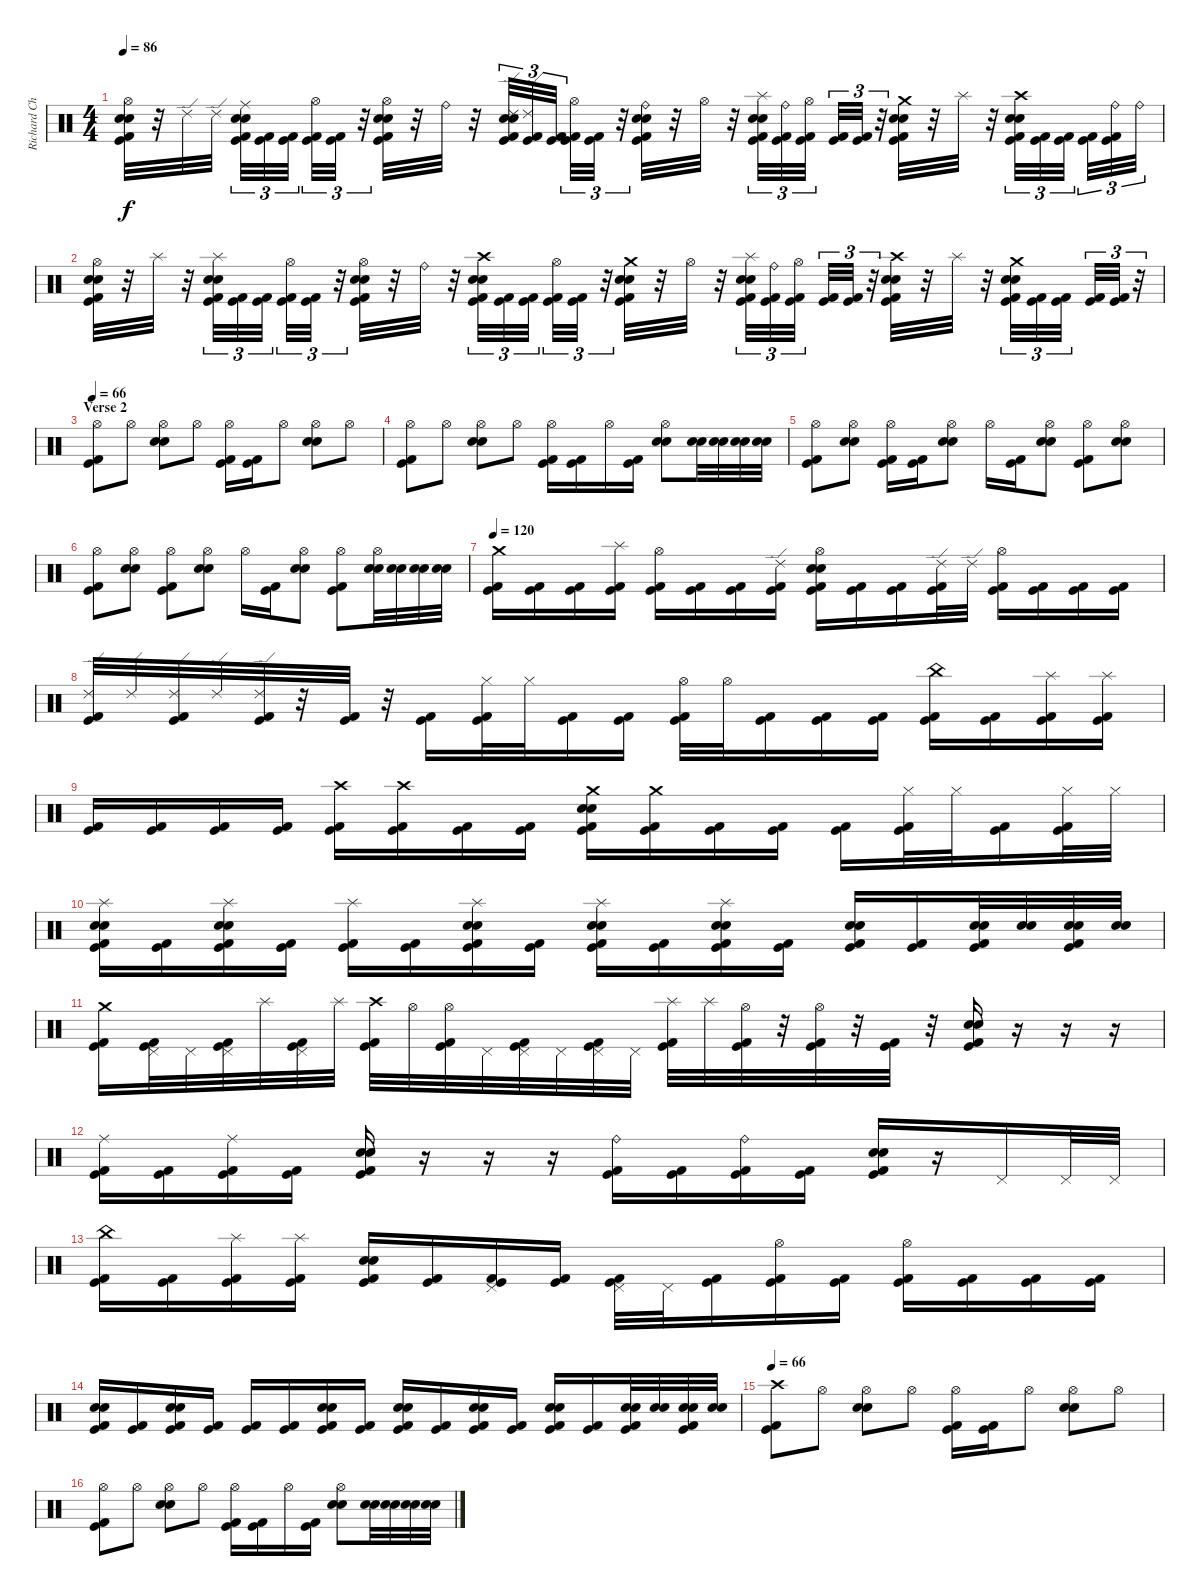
\track ("Richard Christy" "Richard Ch") {instrument percussion}
\staff {score}
\articulation defaults
\ts (4 4)
\tempo 86
\clef neutral
\ks c
("Hi-Hat (open)" "Electric Snare (hit)" "Snare (hit) 2" "Kick (hit) 2" "Kick (hit)").32{dy f} r.32 "Ride (edge) 2".32 "Ride (edge) 2".32 ("Ride (middle)" "Electric Snare (hit)" "Snare (hit) 2" "Kick (hit) 2" "Kick (hit)").32{tu (3 2)} ("Kick (hit) 2" "Kick (hit)").32{tu (3 2)} ("Kick (hit) 2" "Kick (hit)").32{tu (3 2)} ("Hi-Hat (open)" "Kick (hit) 2" "Kick (hit)").32{tu (3 2)} ("Kick (hit) 2" "Kick (hit)").32{tu (3 2)} r.32{tu (3 2)} ("Hi-Hat (open)" "Electric Snare (hit)" "Snare (hit) 2" "Kick (hit) 2" "Kick (hit)").32 r.32 "Ride (bell)".32 r.32 ("Ride (edge) 2" "Electric Snare (hit)" "Snare (hit) 2" "Kick (hit) 2" "Kick (hit)").32{tu (3 2)} ("Ride (edge) 2" "Kick (hit) 2" "Kick (hit)").32{tu (3 2)} ("Kick (hit) 2" "Kick (hit)").32{tu (3 2)} ("Hi-Hat (open)" "Kick (hit) 2" "Kick (hit)").32{tu (3 2)} ("Kick (hit) 2" "Kick (hit)").32{tu (3 2)} r.32{tu (3 2)} ("Ride (bell)" "Electric Snare (hit)" "Snare (hit) 2" "Kick (hit) 2" "Kick (hit)").32 r.32 "Hi-Hat (open)".32 r.32 ("Splash (hit)" "Electric Snare (hit)" "Snare (hit) 2" "Kick (hit) 2" "Kick (hit)").32{tu (3 2)} ("Ride (bell)" "Kick (hit) 2" "Kick (hit)").32{tu (3 2)} ("Hi-Hat (open)" "Kick (hit) 2" "Kick (hit)").32{tu (3 2)} ("Kick (hit) 2" "Kick (hit)").32{tu (3 2)} ("Kick (hit) 2" "Kick (hit)").32{tu (3 2)} r.32{tu (3 2)} ("Crash medium (hit)" "Electric Snare (hit)" "Snare (hit) 2" "Kick (hit) 2" "Kick (hit)").32 r.32 "Splash (hit)".32 r.32 ("Crash high (hit)" "Electric Snare (hit)" "Snare (hit) 2" "Kick (hit) 2" "Kick (hit)").32{tu (3 2)} ("Kick (hit) 2" "Kick (hit)").32{tu (3 2)} ("Kick (hit) 2" "Kick (hit)").32{tu (3 2)} ("Kick (hit) 2" "Kick (hit)").32{tu (3 2)} ("Ride (bell)" "Kick (hit) 2" "Kick (hit)").32{tu (3 2)} "Ride (bell)".32{tu (3 2)} |
("Hi-Hat (open)" "Electric Snare (hit)" "Snare (hit) 2" "Kick (hit) 2" "Kick (hit)").32 r.32 "Splash (hit)".32 r.32 ("Splash (hit)" "Electric Snare (hit)" "Snare (hit) 2" "Kick (hit) 2" "Kick (hit)").32{tu (3 2)} ("Kick (hit) 2" "Kick (hit)").32{tu (3 2)} ("Kick (hit) 2" "Kick (hit)").32{tu (3 2)} ("Hi-Hat (open)" "Kick (hit) 2" "Kick (hit)").32{tu (3 2)} ("Kick (hit) 2" "Kick (hit)").32{tu (3 2)} r.32{tu (3 2)} ("Hi-Hat (open)" "Electric Snare (hit)" "Snare (hit) 2" "Kick (hit) 2" "Kick (hit)").32 r.32 "Ride (bell)".32 r.32 ("Crash high (hit)" "Electric Snare (hit)" "Snare (hit) 2" "Kick (hit) 2" "Kick (hit)").32{tu (3 2)} ("Kick (hit) 2" "Kick (hit)").32{tu (3 2)} ("Kick (hit) 2" "Kick (hit)").32{tu (3 2)} ("Hi-Hat (open)" "Kick (hit) 2" "Kick (hit)").32{tu (3 2)} ("Kick (hit) 2" "Kick (hit)").32{tu (3 2)} r.32{tu (3 2)} ("Crash medium (hit)" "Electric Snare (hit)" "Snare (hit) 2" "Kick (hit) 2" "Kick (hit)").32 r.32 "Hi-Hat (open)".32 r.32 ("Splash (hit)" "Electric Snare (hit)" "Snare (hit) 2" "Kick (hit) 2" "Kick (hit)").32{tu (3 2)} ("Ride (bell)" "Kick (hit) 2" "Kick (hit)").32{tu (3 2)} ("Hi-Hat (open)" "Kick (hit) 2" "Kick (hit)").32{tu (3 2)} ("Kick (hit) 2" "Kick (hit)").32{tu (3 2)} ("Kick (hit) 2" "Kick (hit)").32{tu (3 2)} r.32{tu (3 2)} ("Crash high (hit)" "Electric Snare (hit)" "Snare (hit) 2" "Kick (hit) 2" "Kick (hit)").32 r.32 "Splash (hit)".32 r.32 ("Crash medium (hit)" "Electric Snare (hit)" "Snare (hit) 2" "Kick (hit) 2" "Kick (hit)").32{tu (3 2)} ("Kick (hit) 2" "Kick (hit)").32{tu (3 2)} ("Kick (hit) 2" "Kick (hit)").32{tu (3 2)} ("Kick (hit) 2" "Kick (hit)").32{tu (3 2)} ("Kick (hit) 2" "Kick (hit)").32{tu (3 2)} r.32{tu (3 2)} |
\section ("" "Verse 2")
\tempo 66
("Hi-Hat (open)" "Kick (hit) 2" "Kick (hit)").8 "Hi-Hat (open)".8 ("Hi-Hat (open)" "Snare (hit) 2" "Electric Snare (hit)").8 "Hi-Hat (open)".8 ("Hi-Hat (open)" "Kick (hit) 2" "Kick (hit)").16 ("Kick (hit) 2" "Kick (hit)").16 "Hi-Hat (open)".8 ("Hi-Hat (open)" "Snare (hit) 2" "Electric Snare (hit)").8 "Hi-Hat (open)".8 |
("Hi-Hat (open)" "Kick (hit) 2" "Kick (hit)").8 "Hi-Hat (open)".8 ("Hi-Hat (open)" "Snare (hit) 2" "Electric Snare (hit)").8 "Hi-Hat (open)".8 ("Hi-Hat (open)" "Kick (hit) 2" "Kick (hit)").16 ("Kick (hit) 2" "Kick (hit)").16 "Hi-Hat (open)".16 ("Kick (hit)" "Kick (hit) 2").16 ("Hi-Hat (open)" "Snare (hit) 2" "Electric Snare (hit)").8 ("Snare (hit) 2" "Electric Snare (hit)").32 ("Snare (hit) 2" "Electric Snare (hit)").32 ("Snare (hit) 2" "Electric Snare (hit)").32 ("Snare (hit) 2" "Electric Snare (hit)").32 |
("Hi-Hat (open)" "Kick (hit) 2" "Kick (hit)").8 ("Hi-Hat (open)" "Snare (hit) 2" "Electric Snare (hit)").8 ("Hi-Hat (open)" "Kick (hit) 2" "Kick (hit)").16 ("Kick (hit) 2" "Kick (hit)").16 ("Hi-Hat (open)" "Snare (hit) 2" "Electric Snare (hit)").8 "Hi-Hat (open)".16 ("Kick (hit)" "Kick (hit) 2").16 ("Hi-Hat (open)" "Snare (hit) 2" "Electric Snare (hit)").8 ("Hi-Hat (open)" "Kick (hit)" "Kick (hit) 2").8 ("Hi-Hat (open)" "Snare (hit) 2" "Electric Snare (hit)").8 |
("Hi-Hat (open)" "Kick (hit) 2" "Kick (hit)").8 ("Hi-Hat (open)" "Snare (hit) 2" "Electric Snare (hit)").8 ("Hi-Hat (open)" "Kick (hit)" "Kick (hit) 2").8 ("Hi-Hat (open)" "Snare (hit) 2" "Electric Snare (hit)").8 "Hi-Hat (open)".16 ("Kick (hit) 2" "Kick (hit)").16 ("Hi-Hat (open)" "Snare (hit) 2" "Electric Snare (hit)").8 ("Hi-Hat (open)" "Kick (hit)" "Kick (hit) 2").8 ("Hi-Hat (open)" "Snare (hit) 2" "Electric Snare (hit)").32 ("Snare (hit) 2" "Electric Snare (hit)").32 ("Snare (hit) 2" "Electric Snare (hit)").32 ("Snare (hit) 2" "Electric Snare (hit)").32 |
\tempo 120
("Crash medium (hit)" "Kick (hit) 2" "Kick (hit)").16 ("Kick (hit)" "Kick (hit) 2").16 ("Kick (hit)" "Kick (hit) 2").16 ("Splash (hit)" "Kick (hit)" "Kick (hit) 2").16 ("Hi-Hat (open)" "Kick (hit)" "Kick (hit) 2").16 ("Kick (hit)" "Kick (hit) 2").16 ("Kick (hit)" "Kick (hit) 2").16 ("Ride (edge) 2" "Kick (hit)" "Kick (hit) 2").16 ("Hi-Hat (open)" "Snare (hit) 2" "Electric Snare (hit)" "Kick (hit)" "Kick (hit) 2").16 ("Kick (hit)" "Kick (hit) 2").16 ("Kick (hit)" "Kick (hit) 2").16 ("Ride (edge) 2" "Kick (hit)" "Kick (hit) 2").32 "Ride (edge) 2".32 ("Hi-Hat (open)" "Kick (hit)" "Kick (hit) 2").16 ("Kick (hit)" "Kick (hit) 2").16 ("Kick (hit)" "Kick (hit) 2").16 ("Kick (hit)" "Kick (hit) 2").16 |
("Ride (edge) 2" "Kick (hit)" "Kick (hit) 2").32 "Ride (edge) 2".32 ("Ride (edge) 2" "Kick (hit)" "Kick (hit) 2").32 "Ride (edge) 2".32 ("Ride (edge) 2" "Kick (hit)" "Kick (hit) 2").32 r.32 ("Kick (hit)" "Kick (hit) 2").32 r.32 ("Kick (hit)" "Kick (hit) 2").16 ("Hi-Hat (closed)" "Kick (hit)" "Kick (hit) 2").32 "Hi-Hat (closed)".32 ("Kick (hit)" "Kick (hit) 2").16 ("Kick (hit)" "Kick (hit) 2").16 ("Hi-Hat (open)" "Kick (hit)" "Kick (hit) 2").32 "Hi-Hat (open)".32 ("Kick (hit)" "Kick (hit) 2").16 ("Kick (hit)" "Kick (hit) 2").16 ("Kick (hit)" "Kick (hit) 2").16 ("China (hit)" "Kick (hit)" "Kick (hit) 2").16 ("Kick (hit)" "Kick (hit) 2").16 ("Splash (hit)" "Kick (hit)" "Kick (hit) 2").16 ("Splash (hit)" "Kick (hit)" "Kick (hit) 2").16 |
("Kick (hit)" "Kick (hit) 2").16 ("Kick (hit)" "Kick (hit) 2").16 ("Kick (hit)" "Kick (hit) 2").16 ("Kick (hit)" "Kick (hit) 2").16 ("Crash high (hit)" "Kick (hit)" "Kick (hit) 2").16 ("Crash high (hit)" "Kick (hit)" "Kick (hit) 2").16 ("Kick (hit)" "Kick (hit) 2").16 ("Kick (hit)" "Kick (hit) 2").16 ("Crash medium (hit)" "Snare (hit) 2" "Electric Snare (hit)" "Kick (hit)" "Kick (hit) 2").16 ("Crash medium (hit)" "Kick (hit)" "Kick (hit) 2").16 ("Kick (hit)" "Kick (hit) 2").16 ("Kick (hit)" "Kick (hit) 2").16 ("Kick (hit)" "Kick (hit) 2").16 ("Hi-Hat (closed)" "Kick (hit)" "Kick (hit) 2").32 "Hi-Hat (closed)".32 ("Kick (hit)" "Kick (hit) 2").16 ("Hi-Hat (closed)" "Kick (hit)" "Kick (hit) 2").32 "Hi-Hat (closed)".32 |
("Snare (hit) 2" "Electric Snare (hit)" "Splash (hit)" "Kick (hit)" "Kick (hit) 2").16 ("Kick (hit)" "Kick (hit) 2").16 ("Electric Snare (hit)" "Snare (hit) 2" "Splash (hit)" "Kick (hit)" "Kick (hit) 2").16 ("Kick (hit)" "Kick (hit) 2").16 ("Splash (hit)" "Kick (hit)" "Kick (hit) 2").16 ("Kick (hit)" "Kick (hit) 2").16 ("Electric Snare (hit)" "Snare (hit) 2" "Splash (hit)" "Kick (hit)" "Kick (hit) 2").16 ("Kick (hit)" "Kick (hit) 2").16 ("Splash (hit)" "Electric Snare (hit)" "Snare (hit) 2" "Kick (hit)" "Kick (hit) 2").16 ("Kick (hit)" "Kick (hit) 2").16 ("Splash (hit)" "Snare (hit) 2" "Electric Snare (hit)" "Kick (hit)" "Kick (hit) 2").16 ("Kick (hit)" "Kick (hit) 2").16 ("Snare (hit) 2" "Electric Snare (hit)" "Kick (hit)" "Kick (hit) 2").16 ("Kick (hit)" "Kick (hit) 2").16 ("Snare (hit) 2" "Electric Snare (hit)" "Kick (hit)" "Kick (hit) 2").32 ("Snare (hit) 2" "Electric Snare (hit)").32 ("Snare (hit) 2" "Electric Snare (hit)" "Kick (hit)" "Kick (hit) 2").32 ("Snare (hit) 2" "Electric Snare (hit)").32 |
("Crash medium (hit)" "Kick (hit)" "Kick (hit) 2").16 ("Pedal Hi-Hat (hit)" "Kick (hit)" "Kick (hit) 2").32 "Pedal Hi-Hat (hit)".32 ("Pedal Hi-Hat (hit)" "Kick (hit)" "Kick (hit) 2").32 "Splash (hit)".32 ("Pedal Hi-Hat (hit)" "Kick (hit)" "Kick (hit) 2").32 "Splash (hit)".32 ("Crash high (hit)" "Kick (hit)" "Kick (hit) 2").32 "Hi-Hat (open)".32 ("Hi-Hat (open)" "Kick (hit)" "Kick (hit) 2").32 "Pedal Hi-Hat (hit)".32 ("Pedal Hi-Hat (hit)" "Kick (hit)" "Kick (hit) 2").32 "Pedal Hi-Hat (hit)".32 ("Pedal Hi-Hat (hit)" "Kick (hit)" "Kick (hit) 2").32 "Pedal Hi-Hat (hit)".32 ("Splash (hit)" "Kick (hit)" "Kick (hit) 2").32 "Splash (hit)".32 ("Hi-Hat (open)" "Kick (hit)" "Kick (hit) 2").32 r.32 ("Hi-Hat (open)" "Kick (hit)" "Kick (hit) 2").32 r.32 ("Kick (hit)" "Kick (hit) 2").32 r.32 ("Electric Snare (hit)" "Snare (hit) 2" "Kick (hit)" "Kick (hit) 2").16 r.16 r.16 r.16 |
("Ride (middle)" "Kick (hit)" "Kick (hit) 2").16 ("Kick (hit)" "Kick (hit) 2").16 ("Ride (middle)" "Kick (hit)" "Kick (hit) 2").16 ("Kick (hit)" "Kick (hit) 2").16 ("Electric Snare (hit)" "Snare (hit) 2" "Kick (hit)" "Kick (hit) 2").16 r.16 r.16 r.16 ("Ride (bell)" "Kick (hit)" "Kick (hit) 2").16 ("Kick (hit)" "Kick (hit) 2").16 ("Ride (bell)" "Kick (hit)" "Kick (hit) 2").16 ("Kick (hit)" "Kick (hit) 2").16 ("Electric Snare (hit)" "Snare (hit) 2" "Kick (hit)" "Kick (hit) 2").16 r.16 "Pedal Hi-Hat (hit)".16 "Pedal Hi-Hat (hit)".32 "Pedal Hi-Hat (hit)".32 |
("China (hit)" "Kick (hit)" "Kick (hit) 2").16 ("Kick (hit)" "Kick (hit) 2").16 ("Splash (hit)" "Kick (hit)" "Kick (hit) 2").16 ("Splash (hit)" "Kick (hit)" "Kick (hit) 2").16 ("Snare (hit) 2" "Electric Snare (hit)" "Kick (hit)" "Kick (hit) 2").16 ("Kick (hit)" "Kick (hit) 2").16 ("Pedal Hi-Hat (hit)" "Kick (hit)" "Kick (hit) 2").16 ("Kick (hit)" "Kick (hit) 2").16 ("Pedal Hi-Hat (hit)" "Kick (hit)" "Kick (hit) 2").32 "Pedal Hi-Hat (hit)".32 ("Kick (hit)" "Kick (hit) 2").16 ("Hi-Hat (open)" "Kick (hit)" "Kick (hit) 2").16 ("Kick (hit)" "Kick (hit) 2").16 ("Hi-Hat (open)" "Kick (hit)" "Kick (hit) 2").16 ("Kick (hit)" "Kick (hit) 2").16 ("Kick (hit)" "Kick (hit) 2").16 ("Kick (hit)" "Kick (hit) 2").16 |
("Snare (hit) 2" "Electric Snare (hit)" "Kick (hit)" "Kick (hit) 2").16 ("Kick (hit)" "Kick (hit) 2").16 ("Electric Snare (hit)" "Snare (hit) 2" "Kick (hit)" "Kick (hit) 2").16 ("Kick (hit)" "Kick (hit) 2").16 ("Kick (hit)" "Kick (hit) 2").16 ("Kick (hit)" "Kick (hit) 2").16 ("Electric Snare (hit)" "Snare (hit) 2" "Kick (hit)" "Kick (hit) 2").16 ("Kick (hit)" "Kick (hit) 2").16 ("Electric Snare (hit)" "Snare (hit) 2" "Kick (hit)" "Kick (hit) 2").16 ("Kick (hit)" "Kick (hit) 2").16 ("Snare (hit) 2" "Electric Snare (hit)" "Kick (hit)" "Kick (hit) 2").16 ("Kick (hit)" "Kick (hit) 2").16 ("Snare (hit) 2" "Electric Snare (hit)" "Kick (hit)" "Kick (hit) 2").16 ("Kick (hit)" "Kick (hit) 2").16 ("Snare (hit) 2" "Electric Snare (hit)" "Kick (hit)" "Kick (hit) 2").32 ("Snare (hit) 2" "Electric Snare (hit)").32 ("Snare (hit) 2" "Electric Snare (hit)" "Kick (hit)" "Kick (hit) 2").32 ("Snare (hit) 2" "Electric Snare (hit)").32 |
\tempo 66
("Crash high (hit)" "Kick (hit) 2" "Kick (hit)").8 "Hi-Hat (open)".8 ("Hi-Hat (open)" "Snare (hit) 2" "Electric Snare (hit)").8 "Hi-Hat (open)".8 ("Hi-Hat (open)" "Kick (hit) 2" "Kick (hit)").16 ("Kick (hit) 2" "Kick (hit)").16 "Hi-Hat (open)".8 ("Hi-Hat (open)" "Snare (hit) 2" "Electric Snare (hit)").8 "Hi-Hat (open)".8 |
("Hi-Hat (open)" "Kick (hit) 2" "Kick (hit)").8 "Hi-Hat (open)".8 ("Hi-Hat (open)" "Snare (hit) 2" "Electric Snare (hit)").8 "Hi-Hat (open)".8 ("Hi-Hat (open)" "Kick (hit) 2" "Kick (hit)").16 ("Kick (hit) 2" "Kick (hit)").16 "Hi-Hat (open)".16 ("Kick (hit)" "Kick (hit) 2").16 ("Hi-Hat (open)" "Snare (hit) 2" "Electric Snare (hit)").8 ("Snare (hit) 2" "Electric Snare (hit)").32 ("Snare (hit) 2" "Electric Snare (hit)").32 ("Snare (hit) 2" "Electric Snare (hit)").32 ("Snare (hit) 2" "Electric Snare (hit)").32
